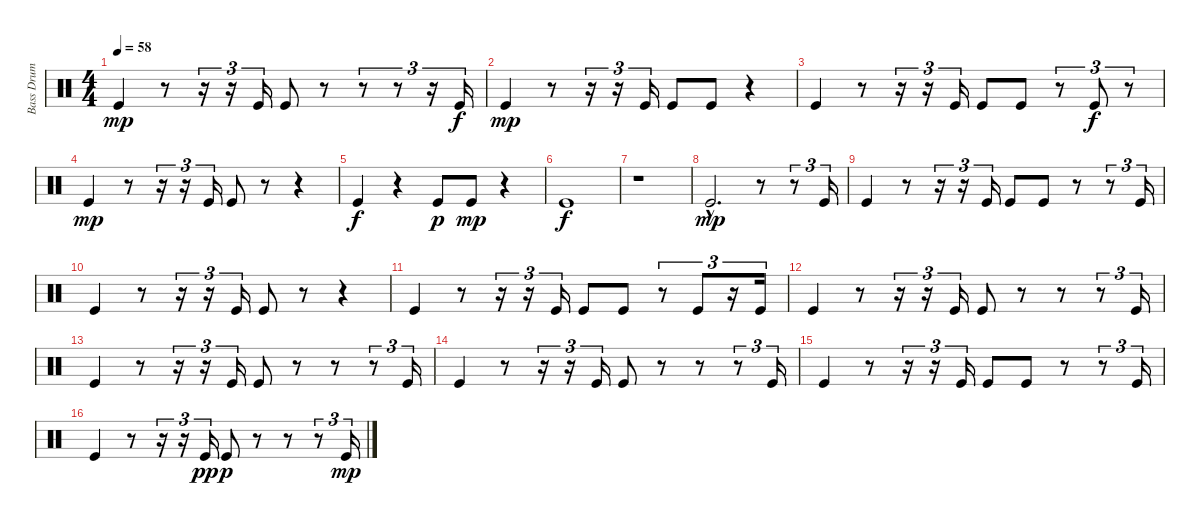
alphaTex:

\track ("Bass Drum" "Bass Drum") {instrument percussion}
\staff {score}
\articulation defaults
\ts (4 4)
\tempo 58
\clef neutral
\ks c "Kick (hit)".4{dy mp}
r.8 r.16{tu (3 2)} r.16{tu (3 2)} "Kick (hit)".16{tu (3 2)} "Kick (hit)".8 r.8 r.8{tu (3 2)} r.8{tu (3 2)} r.16{tu (3 2)} "Kick (hit)".16{tu (3 2) dy f} |
"Kick (hit)".4{dy mp} r.8 r.16{tu (3 2)} r.16{tu (3 2)} "Kick (hit)".16{tu (3 2)} "Kick (hit)".8 "Kick (hit)".8 r.4 |
"Kick (hit)".4 r.8 r.16{tu (3 2)} r.16{tu (3 2)} "Kick (hit)".16{tu (3 2)} "Kick (hit)".8 "Kick (hit)".8 r.8{tu (3 2)} "Kick (hit)".8{tu (3 2) dy f} r.8{tu (3 2)} |
"Kick (hit)".4{dy mp} r.8 r.16{tu (3 2)} r.16{tu (3 2)} "Kick (hit)".16{tu (3 2)} "Kick (hit)".8 r.8 r.4 |
"Kick (hit)".4{dy f} r.4 "Kick (hit)".8{dy p} "Kick (hit)".8{dy mp} r.4 |
"Kick (hit)".1{dy f} |
r.1 |
"Kick (hit)"{hac}.2{d dy mp} r.8 r.8{tu (3 2)} "Kick (hit)".16{tu (3 2)} |
"Kick (hit)".4 r.8 r.16{tu (3 2)} r.16{tu (3 2)} "Kick (hit)".16{tu (3 2)} "Kick (hit)".8 "Kick (hit)".8 r.8 r.8{tu (3 2)} "Kick (hit)".16{tu (3 2)} |
"Kick (hit)".4 r.8 r.16{tu (3 2)} r.16{tu (3 2)} "Kick (hit)".16{tu (3 2)} "Kick (hit)".8 r.8 r.4 |
"Kick (hit)".4 r.8 r.16{tu (3 2)} r.16{tu (3 2)} "Kick (hit)".16{tu (3 2)} "Kick (hit)".8 "Kick (hit)".8 r.8{tu (3 2)} "Kick (hit)".8{tu (3 2)} r.16{tu (3 2)} "Kick (hit)".16{tu (3 2)} |
"Kick (hit)".4 r.8 r.16{tu (3 2)} r.16{tu (3 2)} "Kick (hit)".16{tu (3 2)} "Kick (hit)".8 r.8 r.8 r.8{tu (3 2)} "Kick (hit)".16{tu (3 2)} |
"Kick (hit)".4 r.8 r.16{tu (3 2)} r.16{tu (3 2)} "Kick (hit)".16{tu (3 2)} "Kick (hit)".8 r.8 r.8 r.8{tu (3 2)} "Kick (hit)".16{tu (3 2)} |
"Kick (hit)".4 r.8 r.16{tu (3 2)} r.16{tu (3 2)} "Kick (hit)".16{tu (3 2)} "Kick (hit)".8 r.8 r.8 r.8{tu (3 2)} "Kick (hit)".16{tu (3 2)} |
"Kick (hit)".4 r.8 r.16{tu (3 2)} r.16{tu (3 2)} "Kick (hit)".16{tu (3 2)} "Kick (hit)".8 "Kick (hit)".8 r.8 r.8{tu (3 2)} "Kick (hit)".16{tu (3 2)} |
"Kick (hit)".4 r.8 r.16{tu (3 2)} r.16{tu (3 2)} "Kick (hit)".16{tu (3 2) dy pp} "Kick (hit)".8{dy p} r.8 r.8 r.8{tu (3 2)} "Kick (hit)".16{tu (3 2) dy mp}
